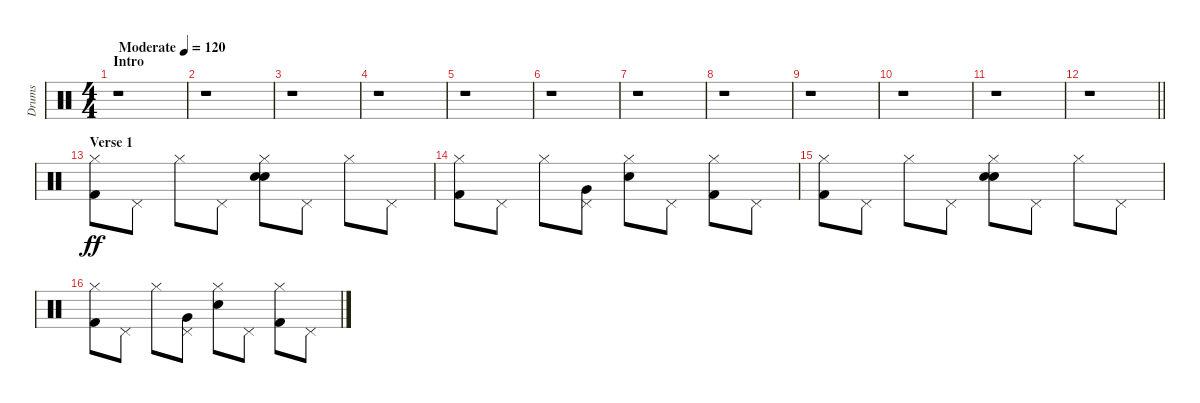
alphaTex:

\track ("Drums" "Drums") {instrument percussion}
\staff {score}
\articulation defaults
\ts (4 4)
\section ("" "Intro")
\tempo (120 "Moderate")
\clef neutral
\ks c
r.1{dy ff} |
r.1 |
r.1 |
r.1 |
r.1 |
r.1 |
r.1 |
r.1 |
r.1 |
r.1 |
r.1 |
\barLineRight lightlight
r.1 |
\section ("" "Verse 1")
("Kick (hit) 2" "Hi-Hat (closed)").8 "Pedal Hi-Hat (hit)".8 "Hi-Hat (closed)".8 "Pedal Hi-Hat (hit)".8 ("Electric Snare (hit)" "Electric Snare (hit)" "Hi-Hat (closed)").8 "Pedal Hi-Hat (hit)".8 "Hi-Hat (closed)".8 "Pedal Hi-Hat (hit)".8 |
("Kick (hit) 2" "Hi-Hat (closed)").8 "Pedal Hi-Hat (hit)".8 "Hi-Hat (closed)".8 ("Very Low Tom (hit)" "Pedal Hi-Hat (hit)").8 ("Electric Snare (hit)" "Hi-Hat (closed)").8 "Pedal Hi-Hat (hit)".8 ("Kick (hit) 2" "Hi-Hat (closed)").8 "Pedal Hi-Hat (hit)".8 |
("Kick (hit) 2" "Hi-Hat (closed)").8 "Pedal Hi-Hat (hit)".8 "Hi-Hat (closed)".8 "Pedal Hi-Hat (hit)".8 ("Electric Snare (hit)" "Electric Snare (hit)" "Hi-Hat (closed)").8 "Pedal Hi-Hat (hit)".8 "Hi-Hat (closed)".8 "Pedal Hi-Hat (hit)".8 |
("Kick (hit) 2" "Hi-Hat (closed)").8 "Pedal Hi-Hat (hit)".8 "Hi-Hat (closed)".8 ("Very Low Tom (hit)" "Pedal Hi-Hat (hit)").8 ("Electric Snare (hit)" "Hi-Hat (closed)").8 "Pedal Hi-Hat (hit)".8 ("Kick (hit) 2" "Hi-Hat (closed)").8 "Pedal Hi-Hat (hit)".8
